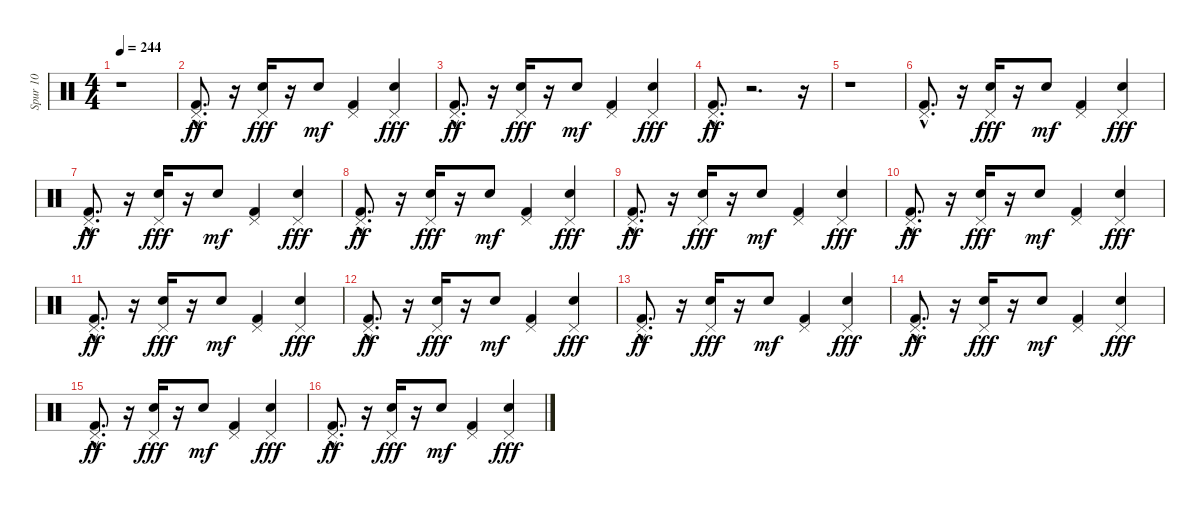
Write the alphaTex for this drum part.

\track ("Spur 10" "Spur 10") {instrument percussion}
\staff {score}
\articulation defaults
\ts (4 4)
\tempo 244
\clef neutral
\ks c
r.1{dy ff} |
("Pedal Hi-Hat (hit)" "Kick (hit) 2"{hac}).8{d} r.16 ("Pedal Hi-Hat (hit)" "Electric Snare (hit)").16{dy fff} r.16 "Electric Snare (hit)".8{dy mf} ("Pedal Hi-Hat (hit)" "Kick (hit) 2").4 ("Pedal Hi-Hat (hit)" "Electric Snare (hit)").4{dy fff} |
("Pedal Hi-Hat (hit)" "Kick (hit) 2"{hac}).8{d dy ff} r.16 ("Pedal Hi-Hat (hit)" "Electric Snare (hit)").16{dy fff} r.16 "Electric Snare (hit)".8{dy mf} ("Pedal Hi-Hat (hit)" "Kick (hit) 2").4 ("Pedal Hi-Hat (hit)" "Electric Snare (hit)").4{dy fff} |
("Pedal Hi-Hat (hit)" "Kick (hit) 2"{hac}).8{d dy ff} r.2{d} r.16 |
r.1 |
("Pedal Hi-Hat (hit)" "Kick (hit) 2"{hac}).8{d} r.16 ("Pedal Hi-Hat (hit)" "Electric Snare (hit)").16{dy fff} r.16 "Electric Snare (hit)".8{dy mf} ("Pedal Hi-Hat (hit)" "Kick (hit) 2").4 ("Pedal Hi-Hat (hit)" "Electric Snare (hit)").4{dy fff} |
("Pedal Hi-Hat (hit)" "Kick (hit) 2"{hac}).8{d dy ff} r.16 ("Pedal Hi-Hat (hit)" "Electric Snare (hit)").16{dy fff} r.16 "Electric Snare (hit)".8{dy mf} ("Pedal Hi-Hat (hit)" "Kick (hit) 2").4 ("Pedal Hi-Hat (hit)" "Electric Snare (hit)").4{dy fff} |
("Pedal Hi-Hat (hit)" "Kick (hit) 2"{hac}).8{d dy ff} r.16 ("Pedal Hi-Hat (hit)" "Electric Snare (hit)").16{dy fff} r.16 "Electric Snare (hit)".8{dy mf} ("Pedal Hi-Hat (hit)" "Kick (hit) 2").4 ("Pedal Hi-Hat (hit)" "Electric Snare (hit)").4{dy fff} |
("Pedal Hi-Hat (hit)" "Kick (hit) 2"{hac}).8{d dy ff} r.16 ("Pedal Hi-Hat (hit)" "Electric Snare (hit)").16{dy fff} r.16 "Electric Snare (hit)".8{dy mf} ("Pedal Hi-Hat (hit)" "Kick (hit) 2").4 ("Pedal Hi-Hat (hit)" "Electric Snare (hit)").4{dy fff} |
("Pedal Hi-Hat (hit)" "Kick (hit) 2"{hac}).8{d dy ff} r.16 ("Pedal Hi-Hat (hit)" "Electric Snare (hit)").16{dy fff} r.16 "Electric Snare (hit)".8{dy mf} ("Pedal Hi-Hat (hit)" "Kick (hit) 2").4 ("Pedal Hi-Hat (hit)" "Electric Snare (hit)").4{dy fff} |
("Pedal Hi-Hat (hit)" "Kick (hit) 2"{hac}).8{d dy ff} r.16 ("Pedal Hi-Hat (hit)" "Electric Snare (hit)").16{dy fff} r.16 "Electric Snare (hit)".8{dy mf} ("Pedal Hi-Hat (hit)" "Kick (hit) 2").4 ("Pedal Hi-Hat (hit)" "Electric Snare (hit)").4{dy fff} |
("Pedal Hi-Hat (hit)" "Kick (hit) 2"{hac}).8{d dy ff} r.16 ("Pedal Hi-Hat (hit)" "Electric Snare (hit)").16{dy fff} r.16 "Electric Snare (hit)".8{dy mf} ("Pedal Hi-Hat (hit)" "Kick (hit) 2").4 ("Pedal Hi-Hat (hit)" "Electric Snare (hit)").4{dy fff} |
("Pedal Hi-Hat (hit)" "Kick (hit) 2"{hac}).8{d dy ff} r.16 ("Pedal Hi-Hat (hit)" "Electric Snare (hit)").16{dy fff} r.16 "Electric Snare (hit)".8{dy mf} ("Pedal Hi-Hat (hit)" "Kick (hit) 2").4 ("Pedal Hi-Hat (hit)" "Electric Snare (hit)").4{dy fff} |
("Pedal Hi-Hat (hit)" "Kick (hit) 2"{hac}).8{d dy ff} r.16 ("Pedal Hi-Hat (hit)" "Electric Snare (hit)").16{dy fff} r.16 "Electric Snare (hit)".8{dy mf} ("Pedal Hi-Hat (hit)" "Kick (hit) 2").4 ("Pedal Hi-Hat (hit)" "Electric Snare (hit)").4{dy fff} |
("Pedal Hi-Hat (hit)" "Kick (hit) 2"{hac}).8{d dy ff} r.16 ("Pedal Hi-Hat (hit)" "Electric Snare (hit)").16{dy fff} r.16 "Electric Snare (hit)".8{dy mf} ("Pedal Hi-Hat (hit)" "Kick (hit) 2").4 ("Pedal Hi-Hat (hit)" "Electric Snare (hit)").4{dy fff} |
("Pedal Hi-Hat (hit)" "Kick (hit) 2"{hac}).8{d dy ff} r.16 ("Pedal Hi-Hat (hit)" "Electric Snare (hit)").16{dy fff} r.16 "Electric Snare (hit)".8{dy mf} ("Pedal Hi-Hat (hit)" "Kick (hit) 2").4 ("Pedal Hi-Hat (hit)" "Electric Snare (hit)").4{dy fff}
